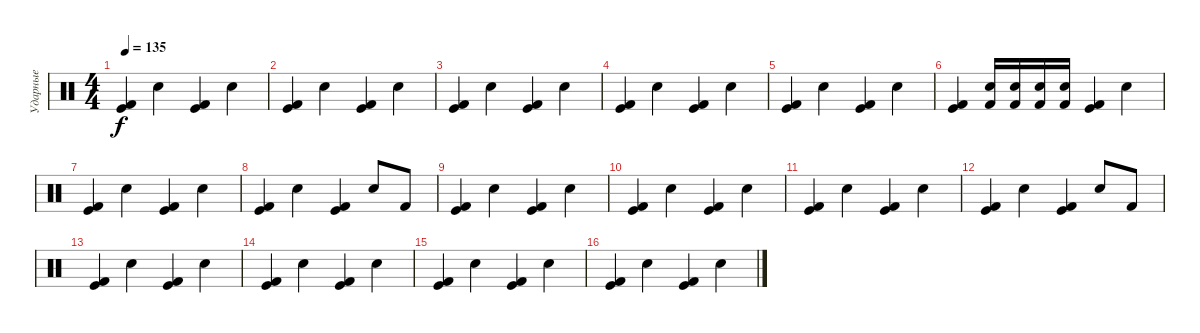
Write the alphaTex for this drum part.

\track ("Ударные" "Ударные") {instrument percussion}
\staff {score}
\articulation defaults
\ts (4 4)
\tempo 135
\clef neutral
\ks c
("Kick (hit) 2" "Kick (hit)").4{dy f} "Electric Snare (hit)".4 ("Kick (hit) 2" "Kick (hit)").4 "Electric Snare (hit)".4 |
("Kick (hit) 2" "Kick (hit)").4 "Electric Snare (hit)".4 ("Kick (hit) 2" "Kick (hit)").4 "Electric Snare (hit)".4 |
("Kick (hit) 2" "Kick (hit)").4 "Electric Snare (hit)".4 ("Kick (hit) 2" "Kick (hit)").4 "Electric Snare (hit)".4 |
("Kick (hit) 2" "Kick (hit)").4 "Electric Snare (hit)".4 ("Kick (hit) 2" "Kick (hit)").4 "Electric Snare (hit)".4 |
("Kick (hit) 2" "Kick (hit)").4 "Electric Snare (hit)".4 ("Kick (hit) 2" "Kick (hit)").4 "Electric Snare (hit)".4 |
("Kick (hit) 2" "Kick (hit)").4 ("Electric Snare (hit)" "Kick (hit) 2").16 ("Electric Snare (hit)" "Kick (hit) 2").16 ("Electric Snare (hit)" "Kick (hit) 2").16 ("Electric Snare (hit)" "Kick (hit) 2").16 ("Kick (hit) 2" "Kick (hit)").4 "Electric Snare (hit)".4 |
("Kick (hit) 2" "Kick (hit)").4 "Electric Snare (hit)".4 ("Kick (hit) 2" "Kick (hit)").4 "Electric Snare (hit)".4 |
("Kick (hit) 2" "Kick (hit)").4 "Electric Snare (hit)".4 ("Kick (hit) 2" "Kick (hit)").4 "Electric Snare (hit)".8 "Kick (hit) 2".8 |
("Kick (hit) 2" "Kick (hit)").4 "Electric Snare (hit)".4 ("Kick (hit) 2" "Kick (hit)").4 "Electric Snare (hit)".4 |
("Kick (hit) 2" "Kick (hit)").4 "Electric Snare (hit)".4 ("Kick (hit) 2" "Kick (hit)").4 "Electric Snare (hit)".4 |
("Kick (hit) 2" "Kick (hit)").4 "Electric Snare (hit)".4 ("Kick (hit) 2" "Kick (hit)").4 "Electric Snare (hit)".4 |
("Kick (hit) 2" "Kick (hit)").4 "Electric Snare (hit)".4 ("Kick (hit) 2" "Kick (hit)").4 "Electric Snare (hit)".8 "Kick (hit) 2".8 |
("Kick (hit) 2" "Kick (hit)").4 "Electric Snare (hit)".4 ("Kick (hit) 2" "Kick (hit)").4 "Electric Snare (hit)".4 |
("Kick (hit) 2" "Kick (hit)").4 "Electric Snare (hit)".4 ("Kick (hit) 2" "Kick (hit)").4 "Electric Snare (hit)".4 |
("Kick (hit) 2" "Kick (hit)").4 "Electric Snare (hit)".4 ("Kick (hit) 2" "Kick (hit)").4 "Electric Snare (hit)".4 |
("Kick (hit) 2" "Kick (hit)").4 "Electric Snare (hit)".4 ("Kick (hit) 2" "Kick (hit)").4 "Electric Snare (hit)".4
